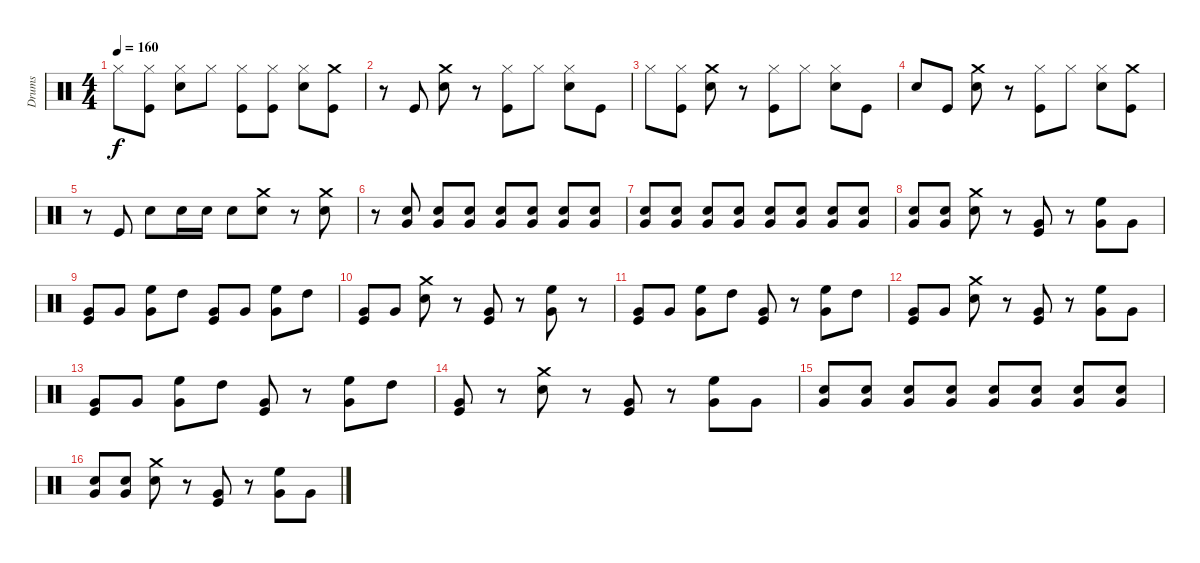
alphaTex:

\track ("Drums" "Drums") {instrument percussion}
\staff {score}
\articulation defaults
\ts (4 4)
\tempo 160
\clef neutral
\ks c "Hi-Hat (closed)".8{dy f}
("Kick (hit)" "Hi-Hat (closed)").8 ("Snare (hit) 2" "Hi-Hat (closed)").8 "Hi-Hat (closed)".8 ("Kick (hit)" "Hi-Hat (closed)").8 ("Hi-Hat (closed)" "Kick (hit)").8 ("Hi-Hat (closed)" "Snare (hit) 2").8 ("Crash medium (hit)" "Kick (hit)").8 |
r.8 "Kick (hit)".8 ("Crash medium (hit)" "Snare (hit) 2").8 r.8 ("Hi-Hat (closed)" "Kick (hit)").8 "Hi-Hat (closed)".8 ("Snare (hit) 2" "Hi-Hat (closed)").8 "Kick (hit)".8 |
"Hi-Hat (closed)".8 ("Kick (hit)" "Hi-Hat (closed)").8 ("Crash medium (hit)" "Snare (hit) 2").8 r.8 ("Hi-Hat (closed)" "Kick (hit)").8 "Hi-Hat (closed)".8 ("Snare (hit) 2" "Hi-Hat (closed)").8 "Kick (hit)".8 |
"Snare (hit) 2".8 "Kick (hit)".8 ("Crash medium (hit)" "Snare (hit) 2").8 r.8 ("Hi-Hat (closed)" "Kick (hit)").8 "Hi-Hat (closed)".8 ("Hi-Hat (closed)" "Snare (hit) 2").8 ("Crash medium (hit)" "Kick (hit)").8 |
r.8 "Kick (hit)".8 "Snare (hit) 2".8 "Snare (hit) 2".16 "Snare (hit) 2".16 "Snare (hit) 2".8 ("Crash medium (hit)" "Snare (hit) 2").8 r.8 ("Crash medium (hit)" "Snare (hit) 2").8 |
r.8 ("Very Low Tom (hit)" "Snare (hit) 2").8 ("Very Low Tom (hit)" "Snare (hit) 2").8 ("Very Low Tom (hit)" "Snare (hit) 2").8 ("Very Low Tom (hit)" "Snare (hit) 2").8 ("Very Low Tom (hit)" "Snare (hit) 2").8 ("Very Low Tom (hit)" "Snare (hit) 2").8 ("Very Low Tom (hit)" "Snare (hit) 2").8 |
("Very Low Tom (hit)" "Snare (hit) 2").8 ("Very Low Tom (hit)" "Snare (hit) 2").8 ("Very Low Tom (hit)" "Snare (hit) 2").8 ("Very Low Tom (hit)" "Snare (hit) 2").8 ("Very Low Tom (hit)" "Snare (hit) 2").8 ("Very Low Tom (hit)" "Snare (hit) 2").8 ("Very Low Tom (hit)" "Snare (hit) 2").8 ("Very Low Tom (hit)" "Snare (hit) 2").8 |
("Very Low Tom (hit)" "Snare (hit) 2").8 ("Snare (hit) 2" "Very Low Tom (hit)").8 ("Crash medium (hit)" "Snare (hit) 2").8 r.8 ("Very Low Tom (hit)" "Kick (hit)").8 r.8 ("High Floor Tom (hit)" "Very Low Tom (hit)").8 "Very Low Tom (hit)".8 |
("Very Low Tom (hit)" "Kick (hit)").8 "Very Low Tom (hit)".8 ("High Floor Tom (hit)" "Very Low Tom (hit)").8 "High Tom (hit)".8 ("Kick (hit)" "Very Low Tom (hit)").8 "Very Low Tom (hit)".8 ("High Floor Tom (hit)" "Very Low Tom (hit)").8 "High Tom (hit)".8 |
("Very Low Tom (hit)" "Kick (hit)").8 "Very Low Tom (hit)".8 ("Crash medium (hit)" "Snare (hit) 2").8 r.8 ("Kick (hit)" "Very Low Tom (hit)").8 r.8 ("High Floor Tom (hit)" "Very Low Tom (hit)").8 r.8 |
("Kick (hit)" "Very Low Tom (hit)").8 "Very Low Tom (hit)".8 ("High Floor Tom (hit)" "Very Low Tom (hit)").8 "High Tom (hit)".8 ("Very Low Tom (hit)" "Kick (hit)").8 r.8 ("High Floor Tom (hit)" "Very Low Tom (hit)").8 "High Tom (hit)".8 |
("Very Low Tom (hit)" "Kick (hit)").8 "Very Low Tom (hit)".8 ("Crash medium (hit)" "Snare (hit) 2").8 r.8 ("Very Low Tom (hit)" "Kick (hit)").8 r.8 ("High Floor Tom (hit)" "Very Low Tom (hit)").8 "Very Low Tom (hit)".8 |
("Kick (hit)" "Very Low Tom (hit)").8 "Very Low Tom (hit)".8 ("High Floor Tom (hit)" "Very Low Tom (hit)").8 "High Tom (hit)".8 ("Kick (hit)" "Very Low Tom (hit)").8 r.8 ("High Floor Tom (hit)" "Very Low Tom (hit)").8 "High Tom (hit)".8 |
("Kick (hit)" "Very Low Tom (hit)").8 r.8 ("Crash medium (hit)" "Snare (hit) 2").8 r.8 ("Kick (hit)" "Very Low Tom (hit)").8 r.8 ("High Floor Tom (hit)" "Very Low Tom (hit)").8 "Very Low Tom (hit)".8 |
("Snare (hit) 2" "Very Low Tom (hit)").8 ("Snare (hit) 2" "Very Low Tom (hit)").8 ("Snare (hit) 2" "Very Low Tom (hit)").8 ("Snare (hit) 2" "Very Low Tom (hit)").8 ("Snare (hit) 2" "Very Low Tom (hit)").8 ("Snare (hit) 2" "Very Low Tom (hit)").8 ("Snare (hit) 2" "Very Low Tom (hit)").8 ("Snare (hit) 2" "Very Low Tom (hit)").8 |
("Very Low Tom (hit)" "Snare (hit) 2").8 ("Snare (hit) 2" "Very Low Tom (hit)").8 ("Crash medium (hit)" "Snare (hit) 2").8 r.8 ("Kick (hit)" "Very Low Tom (hit)").8 r.8 ("High Floor Tom (hit)" "Very Low Tom (hit)").8 "Very Low Tom (hit)".8
